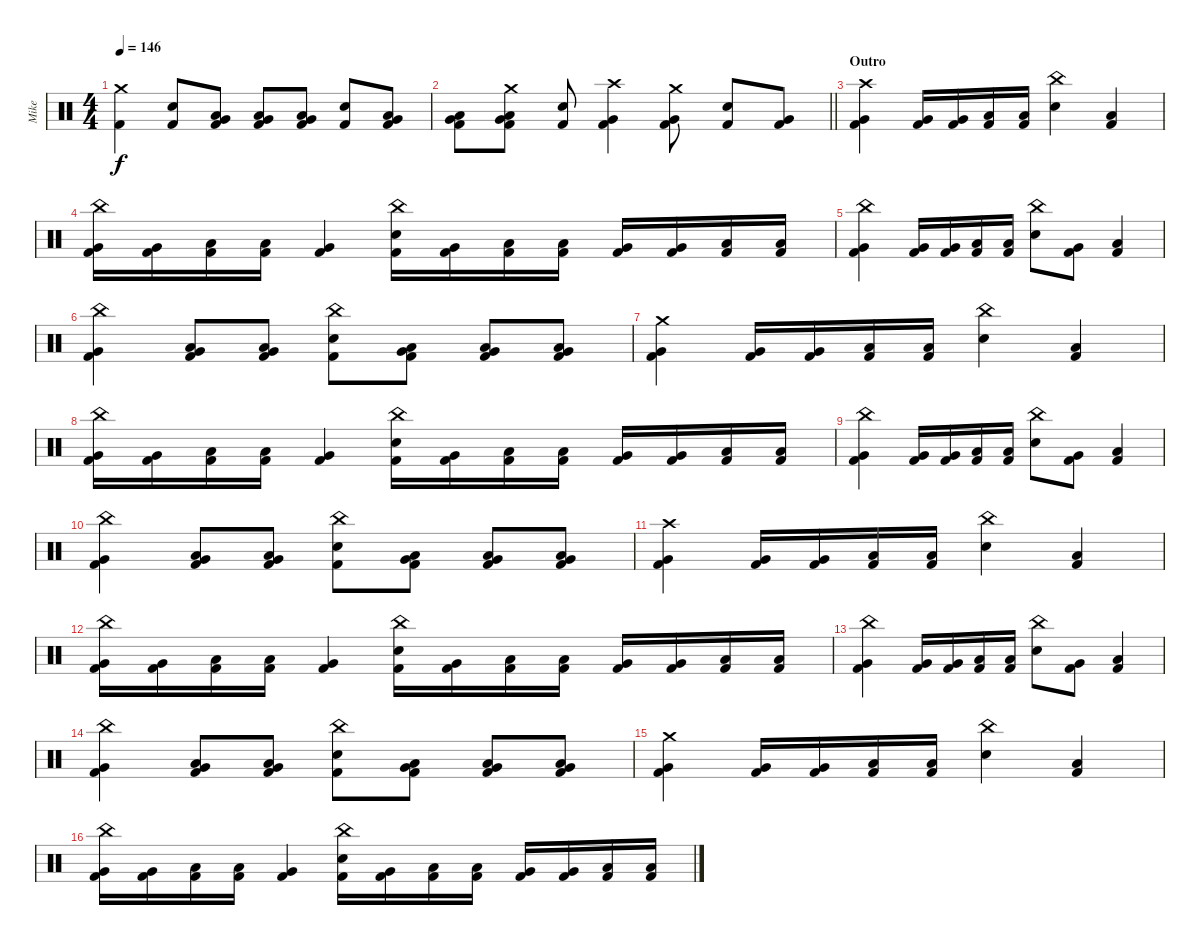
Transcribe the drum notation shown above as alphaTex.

\track ("Mike" "Mike") {instrument percussion}
\staff {score}
\articulation defaults
\ts (4 4)
\tempo 146
\clef neutral
\ks c
("Crash medium (hit)" "Kick (hit) 2").4{dy f} ("Snare (hit) 2" "Kick (hit) 2").8 ("Very Low Tom (hit)" "Low Floor Tom (hit)" "Kick (hit) 2").8 ("Low Tom (hit)" "Very Low Tom (hit)" "Kick (hit) 2").8 ("Very Low Tom (hit)" "Low Floor Tom (hit)" "Kick (hit) 2").8 ("Snare (hit) 2" "Kick (hit) 2").8 ("Very Low Tom (hit)" "Low Floor Tom (hit)" "Kick (hit) 2").8 |
\barLineRight lightlight
("Low Tom (hit)" "Very Low Tom (hit)" "Kick (hit) 2").8 ("Crash medium (hit)" "Very Low Tom (hit)" "Low Floor Tom (hit)" "Kick (hit) 2").8 ("Snare (hit) 2" "Kick (hit) 2").8 ("Crash high (hit)" "Very Low Tom (hit)" "Kick (hit) 2").4 ("Crash medium (hit)" "Very Low Tom (hit)" "Kick (hit) 2").8 ("Snare (hit) 2" "Kick (hit) 2").8 ("Very Low Tom (hit)" "Kick (hit) 2").8 |
\section ("" "Outro")
("Crash high (hit)" "Very Low Tom (hit)" "Kick (hit) 2").4 ("Very Low Tom (hit)" "Kick (hit) 2").16 ("Very Low Tom (hit)" "Kick (hit) 2").16 ("Low Floor Tom (hit)" "Kick (hit) 2").16 ("Low Floor Tom (hit)" "Kick (hit) 2").16 ("China (hit)" "Snare (hit) 2").4 ("Low Floor Tom (hit)" "Kick (hit) 2").4 |
("China (hit)" "Very Low Tom (hit)" "Kick (hit) 2").16 ("Very Low Tom (hit)" "Kick (hit) 2").16 ("Low Floor Tom (hit)" "Kick (hit) 2").16 ("Low Floor Tom (hit)" "Kick (hit) 2").16 ("Very Low Tom (hit)" "Kick (hit) 2").4 ("China (hit)" "Snare (hit) 2" "Kick (hit) 2").16 ("Very Low Tom (hit)" "Kick (hit) 2").16 ("Low Floor Tom (hit)" "Kick (hit) 2").16 ("Low Floor Tom (hit)" "Kick (hit) 2").16 ("Very Low Tom (hit)" "Kick (hit) 2").16 ("Very Low Tom (hit)" "Kick (hit) 2").16 ("Low Floor Tom (hit)" "Kick (hit) 2").16 ("Low Floor Tom (hit)" "Kick (hit) 2").16 |
("China (hit)" "Very Low Tom (hit)" "Kick (hit) 2").4 ("Very Low Tom (hit)" "Kick (hit) 2").16 ("Very Low Tom (hit)" "Kick (hit) 2").16 ("Low Floor Tom (hit)" "Kick (hit) 2").16 ("Low Floor Tom (hit)" "Kick (hit) 2").16 ("China (hit)" "Snare (hit) 2").8 ("Very Low Tom (hit)" "Kick (hit) 2").8 ("Low Floor Tom (hit)" "Kick (hit) 2").4 |
("China (hit)" "Very Low Tom (hit)" "Kick (hit) 2").4 ("Very Low Tom (hit)" "Low Floor Tom (hit)" "Kick (hit) 2").8 ("Very Low Tom (hit)" "Low Floor Tom (hit)" "Kick (hit) 2").8 ("China (hit)" "Snare (hit) 2" "Kick (hit) 2").8 ("Very Low Tom (hit)" "Low Floor Tom (hit)" "Kick (hit) 2").8 ("Very Low Tom (hit)" "Low Floor Tom (hit)" "Kick (hit) 2").8 ("Very Low Tom (hit)" "Low Floor Tom (hit)" "Kick (hit) 2").8 |
("Crash medium (hit)" "Very Low Tom (hit)" "Kick (hit) 2").4 ("Very Low Tom (hit)" "Kick (hit) 2").16 ("Very Low Tom (hit)" "Kick (hit) 2").16 ("Low Floor Tom (hit)" "Kick (hit) 2").16 ("Low Floor Tom (hit)" "Kick (hit) 2").16 ("China (hit)" "Snare (hit) 2").4 ("Low Floor Tom (hit)" "Kick (hit) 2").4 |
("China (hit)" "Very Low Tom (hit)" "Kick (hit) 2").16 ("Very Low Tom (hit)" "Kick (hit) 2").16 ("Low Floor Tom (hit)" "Kick (hit) 2").16 ("Low Floor Tom (hit)" "Kick (hit) 2").16 ("Very Low Tom (hit)" "Kick (hit) 2").4 ("China (hit)" "Snare (hit) 2" "Kick (hit) 2").16 ("Very Low Tom (hit)" "Kick (hit) 2").16 ("Low Floor Tom (hit)" "Kick (hit) 2").16 ("Low Floor Tom (hit)" "Kick (hit) 2").16 ("Very Low Tom (hit)" "Kick (hit) 2").16 ("Very Low Tom (hit)" "Kick (hit) 2").16 ("Low Floor Tom (hit)" "Kick (hit) 2").16 ("Low Floor Tom (hit)" "Kick (hit) 2").16 |
("China (hit)" "Very Low Tom (hit)" "Kick (hit) 2").4 ("Very Low Tom (hit)" "Kick (hit) 2").16 ("Very Low Tom (hit)" "Kick (hit) 2").16 ("Low Floor Tom (hit)" "Kick (hit) 2").16 ("Low Floor Tom (hit)" "Kick (hit) 2").16 ("China (hit)" "Snare (hit) 2").8 ("Very Low Tom (hit)" "Kick (hit) 2").8 ("Low Floor Tom (hit)" "Kick (hit) 2").4 |
("China (hit)" "Very Low Tom (hit)" "Kick (hit) 2").4 ("Very Low Tom (hit)" "Low Floor Tom (hit)" "Kick (hit) 2").8 ("Very Low Tom (hit)" "Low Floor Tom (hit)" "Kick (hit) 2").8 ("China (hit)" "Snare (hit) 2" "Kick (hit) 2").8 ("Very Low Tom (hit)" "Low Floor Tom (hit)" "Kick (hit) 2").8 ("Very Low Tom (hit)" "Low Floor Tom (hit)" "Kick (hit) 2").8 ("Very Low Tom (hit)" "Low Floor Tom (hit)" "Kick (hit) 2").8 |
("Crash high (hit)" "Very Low Tom (hit)" "Kick (hit) 2").4 ("Very Low Tom (hit)" "Kick (hit) 2").16 ("Very Low Tom (hit)" "Kick (hit) 2").16 ("Low Floor Tom (hit)" "Kick (hit) 2").16 ("Low Floor Tom (hit)" "Kick (hit) 2").16 ("China (hit)" "Snare (hit) 2").4 ("Low Floor Tom (hit)" "Kick (hit) 2").4 |
("China (hit)" "Very Low Tom (hit)" "Kick (hit) 2").16 ("Very Low Tom (hit)" "Kick (hit) 2").16 ("Low Floor Tom (hit)" "Kick (hit) 2").16 ("Low Floor Tom (hit)" "Kick (hit) 2").16 ("Very Low Tom (hit)" "Kick (hit) 2").4 ("China (hit)" "Snare (hit) 2" "Kick (hit) 2").16 ("Very Low Tom (hit)" "Kick (hit) 2").16 ("Low Floor Tom (hit)" "Kick (hit) 2").16 ("Low Floor Tom (hit)" "Kick (hit) 2").16 ("Very Low Tom (hit)" "Kick (hit) 2").16 ("Very Low Tom (hit)" "Kick (hit) 2").16 ("Low Floor Tom (hit)" "Kick (hit) 2").16 ("Low Floor Tom (hit)" "Kick (hit) 2").16 |
("China (hit)" "Very Low Tom (hit)" "Kick (hit) 2").4 ("Very Low Tom (hit)" "Kick (hit) 2").16 ("Very Low Tom (hit)" "Kick (hit) 2").16 ("Low Floor Tom (hit)" "Kick (hit) 2").16 ("Low Floor Tom (hit)" "Kick (hit) 2").16 ("China (hit)" "Snare (hit) 2").8 ("Very Low Tom (hit)" "Kick (hit) 2").8 ("Low Floor Tom (hit)" "Kick (hit) 2").4 |
("China (hit)" "Very Low Tom (hit)" "Kick (hit) 2").4 ("Very Low Tom (hit)" "Low Floor Tom (hit)" "Kick (hit) 2").8 ("Very Low Tom (hit)" "Low Floor Tom (hit)" "Kick (hit) 2").8 ("China (hit)" "Snare (hit) 2" "Kick (hit) 2").8 ("Very Low Tom (hit)" "Low Floor Tom (hit)" "Kick (hit) 2").8 ("Very Low Tom (hit)" "Low Floor Tom (hit)" "Kick (hit) 2").8 ("Very Low Tom (hit)" "Low Floor Tom (hit)" "Kick (hit) 2").8 |
("Crash medium (hit)" "Very Low Tom (hit)" "Kick (hit) 2").4 ("Very Low Tom (hit)" "Kick (hit) 2").16 ("Very Low Tom (hit)" "Kick (hit) 2").16 ("Low Floor Tom (hit)" "Kick (hit) 2").16 ("Low Floor Tom (hit)" "Kick (hit) 2").16 ("China (hit)" "Snare (hit) 2").4 ("Low Floor Tom (hit)" "Kick (hit) 2").4 |
("China (hit)" "Very Low Tom (hit)" "Kick (hit) 2").16 ("Very Low Tom (hit)" "Kick (hit) 2").16 ("Low Floor Tom (hit)" "Kick (hit) 2").16 ("Low Floor Tom (hit)" "Kick (hit) 2").16 ("Very Low Tom (hit)" "Kick (hit) 2").4 ("China (hit)" "Snare (hit) 2" "Kick (hit) 2").16 ("Very Low Tom (hit)" "Kick (hit) 2").16 ("Low Floor Tom (hit)" "Kick (hit) 2").16 ("Low Floor Tom (hit)" "Kick (hit) 2").16 ("Very Low Tom (hit)" "Kick (hit) 2").16 ("Very Low Tom (hit)" "Kick (hit) 2").16 ("Low Floor Tom (hit)" "Kick (hit) 2").16 ("Low Floor Tom (hit)" "Kick (hit) 2").16
